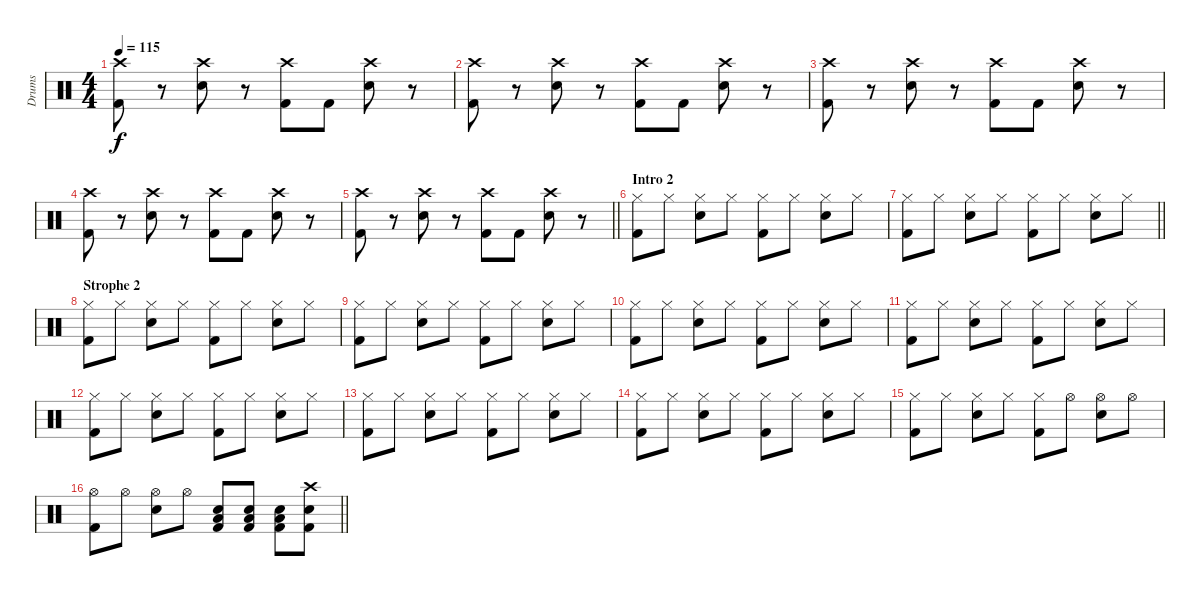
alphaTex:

\track ("Drums" "Drums") {instrument percussion}
\staff {score}
\articulation defaults
\ts (4 4)
\tempo 115
\clef neutral
\ks c
("Crash high (hit)" "Kick (hit) 2").8{dy f} r.8 ("Crash high (hit)" "Snare (hit) 2").8 r.8 ("Crash high (hit)" "Kick (hit) 2").8 "Kick (hit) 2".8 ("Crash high (hit)" "Snare (hit) 2").8 r.8 |
("Crash high (hit)" "Kick (hit) 2").8 r.8 ("Crash high (hit)" "Snare (hit) 2").8 r.8 ("Crash high (hit)" "Kick (hit) 2").8 "Kick (hit) 2".8 ("Crash high (hit)" "Snare (hit) 2").8 r.8 |
("Crash high (hit)" "Kick (hit) 2").8 r.8 ("Crash high (hit)" "Snare (hit) 2").8 r.8 ("Crash high (hit)" "Kick (hit) 2").8 "Kick (hit) 2".8 ("Crash high (hit)" "Snare (hit) 2").8 r.8 |
("Crash high (hit)" "Kick (hit) 2").8 r.8 ("Crash high (hit)" "Snare (hit) 2").8 r.8 ("Crash high (hit)" "Kick (hit) 2").8 "Kick (hit) 2".8 ("Crash high (hit)" "Snare (hit) 2").8 r.8 |
\barLineRight lightlight
("Crash high (hit)" "Kick (hit) 2").8 r.8 ("Crash high (hit)" "Snare (hit) 2").8 r.8 ("Crash high (hit)" "Kick (hit) 2").8 "Kick (hit) 2".8 ("Crash high (hit)" "Snare (hit) 2").8 r.8 |
\section ("" "Intro 2")
("Hi-Hat (closed)" "Kick (hit) 2").8 "Hi-Hat (closed)".8 ("Hi-Hat (closed)" "Snare (hit) 2").8 "Hi-Hat (closed)".8 ("Hi-Hat (closed)" "Kick (hit) 2").8 "Hi-Hat (closed)".8 ("Hi-Hat (closed)" "Snare (hit) 2").8 "Hi-Hat (closed)".8 |
\barLineRight lightlight
("Hi-Hat (closed)" "Kick (hit) 2").8 "Hi-Hat (closed)".8 ("Hi-Hat (closed)" "Snare (hit) 2").8 "Hi-Hat (closed)".8 ("Hi-Hat (closed)" "Kick (hit) 2").8 "Hi-Hat (closed)".8 ("Hi-Hat (closed)" "Snare (hit) 2").8 "Hi-Hat (closed)".8 |
\section ("" "Strophe 2")
("Hi-Hat (closed)" "Kick (hit) 2").8 "Hi-Hat (closed)".8 ("Hi-Hat (closed)" "Snare (hit) 2").8 "Hi-Hat (closed)".8 ("Hi-Hat (closed)" "Kick (hit) 2").8 "Hi-Hat (closed)".8 ("Hi-Hat (closed)" "Snare (hit) 2").8 "Hi-Hat (closed)".8 |
("Hi-Hat (closed)" "Kick (hit) 2").8 "Hi-Hat (closed)".8 ("Hi-Hat (closed)" "Snare (hit) 2").8 "Hi-Hat (closed)".8 ("Hi-Hat (closed)" "Kick (hit) 2").8 "Hi-Hat (closed)".8 ("Hi-Hat (closed)" "Snare (hit) 2").8 "Hi-Hat (closed)".8 |
("Hi-Hat (closed)" "Kick (hit) 2").8 "Hi-Hat (closed)".8 ("Hi-Hat (closed)" "Snare (hit) 2").8 "Hi-Hat (closed)".8 ("Hi-Hat (closed)" "Kick (hit) 2").8 "Hi-Hat (closed)".8 ("Hi-Hat (closed)" "Snare (hit) 2").8 "Hi-Hat (closed)".8 |
("Hi-Hat (closed)" "Kick (hit) 2").8 "Hi-Hat (closed)".8 ("Hi-Hat (closed)" "Snare (hit) 2").8 "Hi-Hat (closed)".8 ("Hi-Hat (closed)" "Kick (hit) 2").8 "Hi-Hat (closed)".8 ("Hi-Hat (closed)" "Snare (hit) 2").8 "Hi-Hat (closed)".8 |
("Hi-Hat (closed)" "Kick (hit) 2").8 "Hi-Hat (closed)".8 ("Hi-Hat (closed)" "Snare (hit) 2").8 "Hi-Hat (closed)".8 ("Hi-Hat (closed)" "Kick (hit) 2").8 "Hi-Hat (closed)".8 ("Hi-Hat (closed)" "Snare (hit) 2").8 "Hi-Hat (closed)".8 |
("Hi-Hat (closed)" "Kick (hit) 2").8 "Hi-Hat (closed)".8 ("Hi-Hat (closed)" "Snare (hit) 2").8 "Hi-Hat (closed)".8 ("Hi-Hat (closed)" "Kick (hit) 2").8 "Hi-Hat (closed)".8 ("Hi-Hat (closed)" "Snare (hit) 2").8 "Hi-Hat (closed)".8 |
("Hi-Hat (closed)" "Kick (hit) 2").8 "Hi-Hat (closed)".8 ("Hi-Hat (closed)" "Snare (hit) 2").8 "Hi-Hat (closed)".8 ("Hi-Hat (closed)" "Kick (hit) 2").8 "Hi-Hat (closed)".8 ("Hi-Hat (closed)" "Snare (hit) 2").8 "Hi-Hat (closed)".8 |
("Hi-Hat (closed)" "Kick (hit) 2").8 "Hi-Hat (closed)".8 ("Hi-Hat (closed)" "Snare (hit) 2").8 "Hi-Hat (closed)".8 ("Hi-Hat (closed)" "Kick (hit) 2").8 "Hi-Hat (open)".8 ("Hi-Hat (open)" "Snare (hit) 2").8 "Hi-Hat (open)".8 |
\barLineRight lightlight
("Hi-Hat (open)" "Kick (hit) 2").8 "Hi-Hat (open)".8 ("Hi-Hat (open)" "Snare (hit) 2").8 "Hi-Hat (open)".8 ("Snare (hit) 2" "Low Tom (hit)" "Kick (hit) 2").8 ("Snare (hit) 2" "Low Tom (hit)" "Kick (hit) 2").8 ("Snare (hit) 2" "Low Tom (hit)" "Kick (hit) 2").8 ("Crash high (hit)" "Snare (hit) 2" "Kick (hit) 2").8
